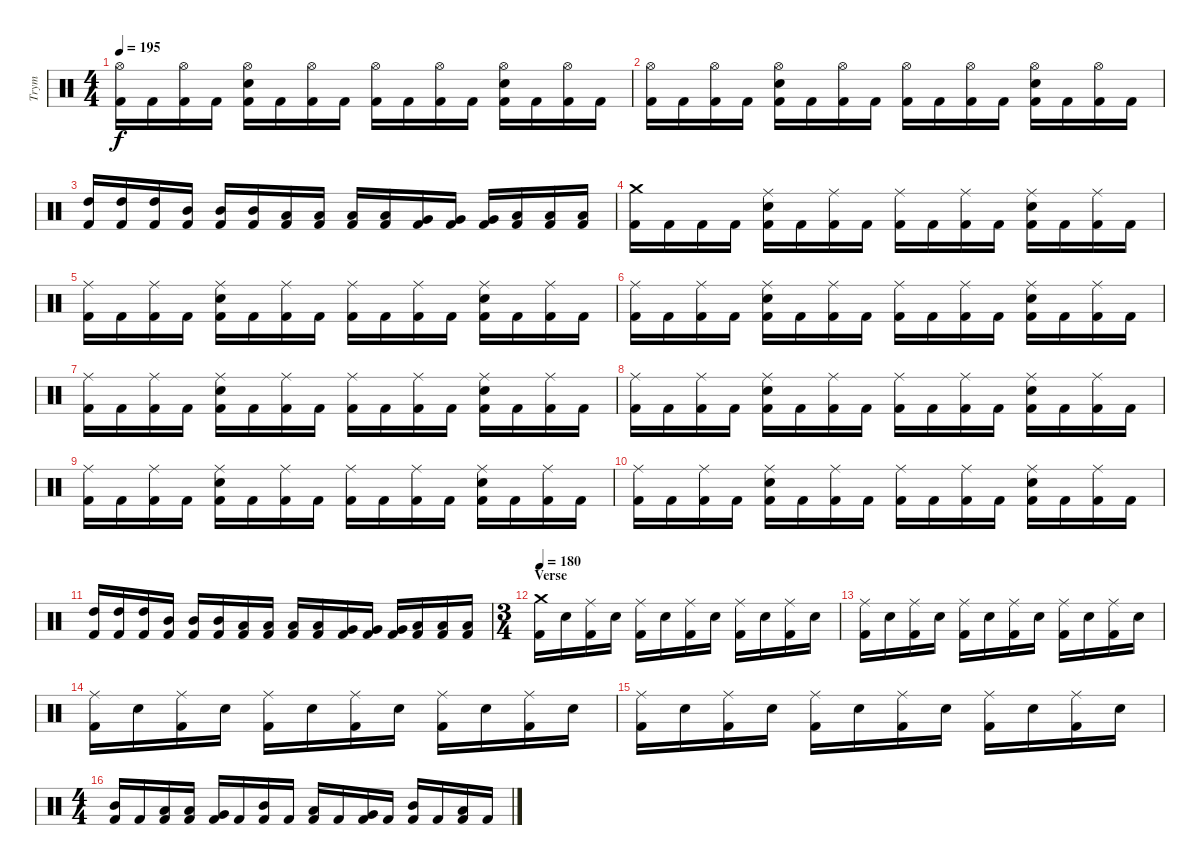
\track ("Trym" "Trym") {instrument percussion}
\staff {score}
\articulation defaults
\ts (4 4)
\tempo 195
\clef neutral
\ks c
("Hi-Hat (open)" "Kick (hit) 2").16{dy f} "Kick (hit) 2".16 ("Hi-Hat (open)" "Kick (hit) 2").16 "Kick (hit) 2".16 ("Hi-Hat (open)" "Electric Snare (hit)" "Kick (hit) 2").16 "Kick (hit) 2".16 ("Hi-Hat (open)" "Kick (hit) 2").16 "Kick (hit) 2".16 ("Hi-Hat (open)" "Kick (hit) 2").16 "Kick (hit) 2".16 ("Hi-Hat (open)" "Kick (hit) 2").16 "Kick (hit) 2".16 ("Hi-Hat (open)" "Electric Snare (hit)" "Kick (hit) 2").16 "Kick (hit) 2".16 ("Hi-Hat (open)" "Kick (hit) 2").16 "Kick (hit) 2".16 |
("Hi-Hat (open)" "Kick (hit) 2").16 "Kick (hit) 2".16 ("Hi-Hat (open)" "Kick (hit) 2").16 "Kick (hit) 2".16 ("Hi-Hat (open)" "Electric Snare (hit)" "Kick (hit) 2").16 "Kick (hit) 2".16 ("Hi-Hat (open)" "Kick (hit) 2").16 "Kick (hit) 2".16 ("Hi-Hat (open)" "Kick (hit) 2").16 "Kick (hit) 2".16 ("Hi-Hat (open)" "Kick (hit) 2").16 "Kick (hit) 2".16 ("Hi-Hat (open)" "Electric Snare (hit)" "Kick (hit) 2").16 "Kick (hit) 2".16 ("Hi-Hat (open)" "Kick (hit) 2").16 "Kick (hit) 2".16 |
("High Tom (hit)" "Kick (hit) 2").16 ("High Tom (hit)" "Kick (hit) 2").16 ("High Tom (hit)" "Kick (hit) 2").16 ("Mid Tom (hit)" "Kick (hit) 2").16 ("Mid Tom (hit)" "Kick (hit) 2").16 ("Mid Tom (hit)" "Kick (hit) 2").16 ("Low Tom (hit)" "Kick (hit) 2").16 ("Low Tom (hit)" "Kick (hit) 2").16 ("Low Tom (hit)" "Kick (hit) 2").16 ("Low Tom (hit)" "Kick (hit) 2").16 ("Very Low Tom (hit)" "Kick (hit) 2").16 ("Very Low Tom (hit)" "Kick (hit) 2").16 ("Very Low Tom (hit)" "Kick (hit) 2").16 ("Low Floor Tom (hit)" "Kick (hit) 2").16 ("Low Floor Tom (hit)" "Kick (hit) 2").16 ("Low Floor Tom (hit)" "Kick (hit) 2").16 |
("Crash medium (hit)" "Kick (hit) 2").16 "Kick (hit) 2".16 "Kick (hit) 2".16 "Kick (hit) 2".16 ("Ride (middle)" "Electric Snare (hit)" "Kick (hit) 2").16 "Kick (hit) 2".16 ("Ride (middle)" "Kick (hit) 2").16 "Kick (hit) 2".16 ("Ride (middle)" "Kick (hit) 2").16 "Kick (hit) 2".16 ("Ride (middle)" "Kick (hit) 2").16 "Kick (hit) 2".16 ("Ride (middle)" "Electric Snare (hit)" "Kick (hit) 2").16 "Kick (hit) 2".16 ("Ride (middle)" "Kick (hit) 2").16 "Kick (hit) 2".16 |
("Ride (middle)" "Kick (hit) 2").16 "Kick (hit) 2".16 ("Ride (middle)" "Kick (hit) 2").16 "Kick (hit) 2".16 ("Ride (middle)" "Electric Snare (hit)" "Kick (hit) 2").16 "Kick (hit) 2".16 ("Ride (middle)" "Kick (hit) 2").16 "Kick (hit) 2".16 ("Ride (middle)" "Kick (hit) 2").16 "Kick (hit) 2".16 ("Ride (middle)" "Kick (hit) 2").16 "Kick (hit) 2".16 ("Ride (middle)" "Electric Snare (hit)" "Kick (hit) 2").16 "Kick (hit) 2".16 ("Ride (middle)" "Kick (hit) 2").16 "Kick (hit) 2".16 |
("Ride (middle)" "Kick (hit) 2").16 "Kick (hit) 2".16 ("Ride (middle)" "Kick (hit) 2").16 "Kick (hit) 2".16 ("Ride (middle)" "Electric Snare (hit)" "Kick (hit) 2").16 "Kick (hit) 2".16 ("Ride (middle)" "Kick (hit) 2").16 "Kick (hit) 2".16 ("Ride (middle)" "Kick (hit) 2").16 "Kick (hit) 2".16 ("Ride (middle)" "Kick (hit) 2").16 "Kick (hit) 2".16 ("Ride (middle)" "Electric Snare (hit)" "Kick (hit) 2").16 "Kick (hit) 2".16 ("Ride (middle)" "Kick (hit) 2").16 "Kick (hit) 2".16 |
("Ride (middle)" "Kick (hit) 2").16 "Kick (hit) 2".16 ("Ride (middle)" "Kick (hit) 2").16 "Kick (hit) 2".16 ("Ride (middle)" "Electric Snare (hit)" "Kick (hit) 2").16 "Kick (hit) 2".16 ("Ride (middle)" "Kick (hit) 2").16 "Kick (hit) 2".16 ("Ride (middle)" "Kick (hit) 2").16 "Kick (hit) 2".16 ("Ride (middle)" "Kick (hit) 2").16 "Kick (hit) 2".16 ("Ride (middle)" "Electric Snare (hit)" "Kick (hit) 2").16 "Kick (hit) 2".16 ("Ride (middle)" "Kick (hit) 2").16 "Kick (hit) 2".16 |
("Ride (middle)" "Kick (hit) 2").16 "Kick (hit) 2".16 ("Ride (middle)" "Kick (hit) 2").16 "Kick (hit) 2".16 ("Ride (middle)" "Electric Snare (hit)" "Kick (hit) 2").16 "Kick (hit) 2".16 ("Ride (middle)" "Kick (hit) 2").16 "Kick (hit) 2".16 ("Ride (middle)" "Kick (hit) 2").16 "Kick (hit) 2".16 ("Ride (middle)" "Kick (hit) 2").16 "Kick (hit) 2".16 ("Ride (middle)" "Electric Snare (hit)" "Kick (hit) 2").16 "Kick (hit) 2".16 ("Ride (middle)" "Kick (hit) 2").16 "Kick (hit) 2".16 |
("Ride (middle)" "Kick (hit) 2").16 "Kick (hit) 2".16 ("Ride (middle)" "Kick (hit) 2").16 "Kick (hit) 2".16 ("Ride (middle)" "Electric Snare (hit)" "Kick (hit) 2").16 "Kick (hit) 2".16 ("Ride (middle)" "Kick (hit) 2").16 "Kick (hit) 2".16 ("Ride (middle)" "Kick (hit) 2").16 "Kick (hit) 2".16 ("Ride (middle)" "Kick (hit) 2").16 "Kick (hit) 2".16 ("Ride (middle)" "Electric Snare (hit)" "Kick (hit) 2").16 "Kick (hit) 2".16 ("Ride (middle)" "Kick (hit) 2").16 "Kick (hit) 2".16 |
("Ride (middle)" "Kick (hit) 2").16 "Kick (hit) 2".16 ("Ride (middle)" "Kick (hit) 2").16 "Kick (hit) 2".16 ("Ride (middle)" "Electric Snare (hit)" "Kick (hit) 2").16 "Kick (hit) 2".16 ("Ride (middle)" "Kick (hit) 2").16 "Kick (hit) 2".16 ("Ride (middle)" "Kick (hit) 2").16 "Kick (hit) 2".16 ("Ride (middle)" "Kick (hit) 2").16 "Kick (hit) 2".16 ("Ride (middle)" "Electric Snare (hit)" "Kick (hit) 2").16 "Kick (hit) 2".16 ("Ride (middle)" "Kick (hit) 2").16 "Kick (hit) 2".16 |
("High Tom (hit)" "Kick (hit) 2").16 ("High Tom (hit)" "Kick (hit) 2").16 ("High Tom (hit)" "Kick (hit) 2").16 ("Mid Tom (hit)" "Kick (hit) 2").16 ("Mid Tom (hit)" "Kick (hit) 2").16 ("Mid Tom (hit)" "Kick (hit) 2").16 ("Low Tom (hit)" "Kick (hit) 2").16 ("Low Tom (hit)" "Kick (hit) 2").16 ("Low Tom (hit)" "Kick (hit) 2").16 ("Low Tom (hit)" "Kick (hit) 2").16 ("Very Low Tom (hit)" "Kick (hit) 2").16 ("Very Low Tom (hit)" "Kick (hit) 2").16 ("Very Low Tom (hit)" "Kick (hit) 2").16 ("Low Floor Tom (hit)" "Kick (hit) 2").16 ("Low Floor Tom (hit)" "Kick (hit) 2").16 ("Low Floor Tom (hit)" "Kick (hit) 2").16 |
\ts (3 4)
\section ("" "Verse")
\tempo 180
("Kick (hit) 2" "Crash medium (hit)").16 "Electric Snare (hit)".16 ("Kick (hit) 2" "Ride (middle)").16 "Electric Snare (hit)".16 ("Kick (hit) 2" "Ride (middle)").16 "Electric Snare (hit)".16 ("Kick (hit) 2" "Ride (middle)").16 "Electric Snare (hit)".16 ("Kick (hit) 2" "Ride (middle)").16 "Electric Snare (hit)".16 ("Kick (hit) 2" "Ride (middle)").16 "Electric Snare (hit)".16 |
("Kick (hit) 2" "Ride (middle)").16 "Electric Snare (hit)".16 ("Kick (hit) 2" "Ride (middle)").16 "Electric Snare (hit)".16 ("Kick (hit) 2" "Ride (middle)").16 "Electric Snare (hit)".16 ("Kick (hit) 2" "Ride (middle)").16 "Electric Snare (hit)".16 ("Kick (hit) 2" "Ride (middle)").16 "Electric Snare (hit)".16 ("Kick (hit) 2" "Ride (middle)").16 "Electric Snare (hit)".16 |
("Kick (hit) 2" "Ride (middle)").16 "Electric Snare (hit)".16 ("Kick (hit) 2" "Ride (middle)").16 "Electric Snare (hit)".16 ("Kick (hit) 2" "Ride (middle)").16 "Electric Snare (hit)".16 ("Kick (hit) 2" "Ride (middle)").16 "Electric Snare (hit)".16 ("Kick (hit) 2" "Ride (middle)").16 "Electric Snare (hit)".16 ("Kick (hit) 2" "Ride (middle)").16 "Electric Snare (hit)".16 |
("Kick (hit) 2" "Ride (middle)").16 "Electric Snare (hit)".16 ("Kick (hit) 2" "Ride (middle)").16 "Electric Snare (hit)".16 ("Kick (hit) 2" "Ride (middle)").16 "Electric Snare (hit)".16 ("Kick (hit) 2" "Ride (middle)").16 "Electric Snare (hit)".16 ("Kick (hit) 2" "Ride (middle)").16 "Electric Snare (hit)".16 ("Kick (hit) 2" "Ride (middle)").16 "Electric Snare (hit)".16 |
\ts (4 4)
("Kick (hit) 2" "Mid Tom (hit)").16 "Kick (hit) 2".16 ("Kick (hit) 2" "Low Tom (hit)").16 ("Kick (hit) 2" "Low Tom (hit)").16 ("Kick (hit) 2" "Very Low Tom (hit)").16 "Kick (hit) 2".16 ("Kick (hit) 2" "Mid Tom (hit)").16 "Kick (hit) 2".16 ("Kick (hit) 2" "Low Tom (hit)").16 "Kick (hit) 2".16 ("Kick (hit) 2" "Very Low Tom (hit)").16 "Kick (hit) 2".16 ("Kick (hit) 2" "Mid Tom (hit)").16 "Kick (hit) 2".16 ("Kick (hit) 2" "Low Tom (hit)").16 "Kick (hit) 2".16
